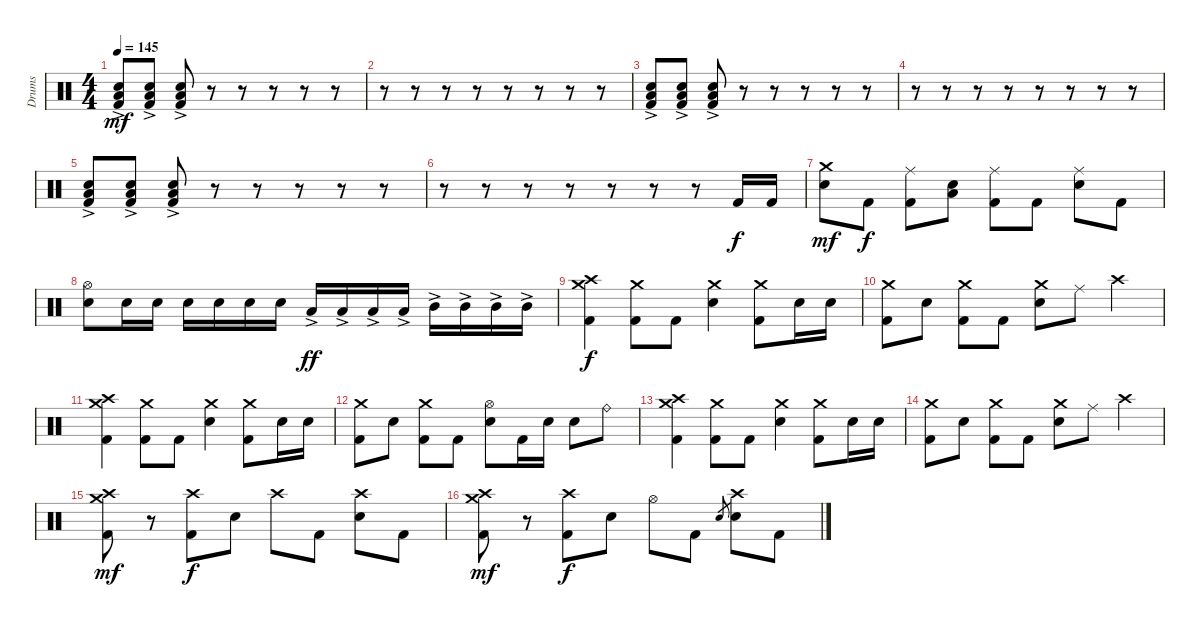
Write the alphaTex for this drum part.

\track ("Drums" "Drums") {instrument percussion}
\staff {score}
\articulation defaults
\ts (4 4)
\tempo 145
\clef neutral
\ks c
("Low Tom (hit)"{ac} "Electric Snare (hit)" "Kick (hit) 2").8{dy mf} ("Low Tom (hit)"{ac} "Electric Snare (hit)" "Kick (hit) 2").8 ("Low Tom (hit)"{ac} "Electric Snare (hit)" "Kick (hit) 2").8 r.8 r.8 r.8 r.8 r.8 |
r.8 r.8 r.8 r.8 r.8 r.8 r.8 r.8 |
("Low Tom (hit)"{ac} "Electric Snare (hit)" "Kick (hit) 2").8 ("Low Tom (hit)"{ac} "Electric Snare (hit)" "Kick (hit) 2").8 ("Low Tom (hit)"{ac} "Electric Snare (hit)" "Kick (hit) 2").8 r.8 r.8 r.8 r.8 r.8 |
r.8 r.8 r.8 r.8 r.8 r.8 r.8 r.8 |
("Low Tom (hit)"{ac} "Electric Snare (hit)" "Kick (hit) 2").8 ("Low Tom (hit)"{ac} "Electric Snare (hit)" "Kick (hit) 2").8 ("Low Tom (hit)"{ac} "Electric Snare (hit)" "Kick (hit) 2").8 r.8 r.8 r.8 r.8 r.8 |
r.8 r.8 r.8 r.8 r.8 r.8 r.8 "Kick (hit) 2".16{dy f} "Kick (hit) 2".16 |
("Crash medium (hit)" "Electric Snare (hit)").8{dy mf} "Kick (hit) 2".8{dy f} ("Ride (middle)" "Kick (hit) 2").8 ("Low Tom (hit)" "Electric Snare (hit)").8 ("Ride (middle)" "Kick (hit) 2").8 "Kick (hit) 2".8 ("Ride (middle)" "Electric Snare (hit)").8 "Kick (hit) 2".8 |
("Hi-Hat (open)" "Electric Snare (hit)").8 "Electric Snare (hit)".16 "Electric Snare (hit)".16 "Electric Snare (hit)".16 "Electric Snare (hit)".16 "Electric Snare (hit)".16 "Electric Snare (hit)".16 "Low Tom (hit)"{ac}.16{dy ff} "Low Tom (hit)"{ac}.16 "Low Tom (hit)"{ac}.16 "Low Tom (hit)"{ac}.16 "Mid Tom (hit)"{ac}.16 "Mid Tom (hit)"{ac}.16 "Mid Tom (hit)"{ac}.16 "Mid Tom (hit)"{ac}.16 |
("Crash high (hit)" "Crash medium (hit)" "Kick (hit) 2").4{dy f} ("Crash medium (hit)" "Kick (hit) 2").8 "Kick (hit) 2".8 ("Crash medium (hit)" "Electric Snare (hit)").4 ("Crash medium (hit)" "Kick (hit) 2").8 "Electric Snare (hit)".16 "Electric Snare (hit)".16 |
("Crash medium (hit)" "Kick (hit) 2").8 "Electric Snare (hit)".8 ("Crash medium (hit)" "Kick (hit) 2").8 "Kick (hit) 2".8 ("Crash medium (hit)" "Electric Snare (hit)").8 "Ride (middle)".8 "Crash high (hit)".4 |
("Crash high (hit)" "Crash medium (hit)" "Kick (hit) 2").4 ("Crash medium (hit)" "Kick (hit) 2").8 "Kick (hit) 2".8 ("Crash medium (hit)" "Electric Snare (hit)").4 ("Crash medium (hit)" "Kick (hit) 2").8 "Electric Snare (hit)".16 "Electric Snare (hit)".16 |
("Crash medium (hit)" "Kick (hit) 2").8 "Electric Snare (hit)".8 ("Crash medium (hit)" "Kick (hit) 2").8 "Kick (hit) 2".8 ("Hi-Hat (open)" "Electric Snare (hit)").8 "Kick (hit) 2".16 "Electric Snare (hit)".16 "Electric Snare (hit)".8 "Ride (bell)".8 |
("Crash high (hit)" "Crash medium (hit)" "Kick (hit) 2").4 ("Crash medium (hit)" "Kick (hit) 2").8 "Kick (hit) 2".8 ("Crash medium (hit)" "Electric Snare (hit)").4 ("Crash medium (hit)" "Kick (hit) 2").8 "Electric Snare (hit)".16 "Electric Snare (hit)".16 |
("Crash medium (hit)" "Kick (hit) 2").8 "Electric Snare (hit)".8 ("Crash medium (hit)" "Kick (hit) 2").8 "Kick (hit) 2".8 ("Crash medium (hit)" "Electric Snare (hit)").8 "Ride (middle)".8 "Crash high (hit)".4 |
("Crash high (hit)" "Crash medium (hit)" "Kick (hit) 2").8{dy mf} r.8 ("Crash high (hit)" "Kick (hit) 2").8{dy f} "Electric Snare (hit)".8 "Crash high (hit)".8 "Kick (hit) 2".8 ("Crash high (hit)" "Electric Snare (hit)").8 "Kick (hit) 2".8 |
("Crash high (hit)" "Crash medium (hit)" "Kick (hit) 2").8{dy mf} r.8 ("Crash high (hit)" "Kick (hit) 2").8{dy f} "Electric Snare (hit)".8 "Hi-Hat (open)".8 "Kick (hit) 2".8 "Electric Snare (hit)".8{gr} ("Crash high (hit)" "Electric Snare (hit)").8 "Kick (hit) 2".8
